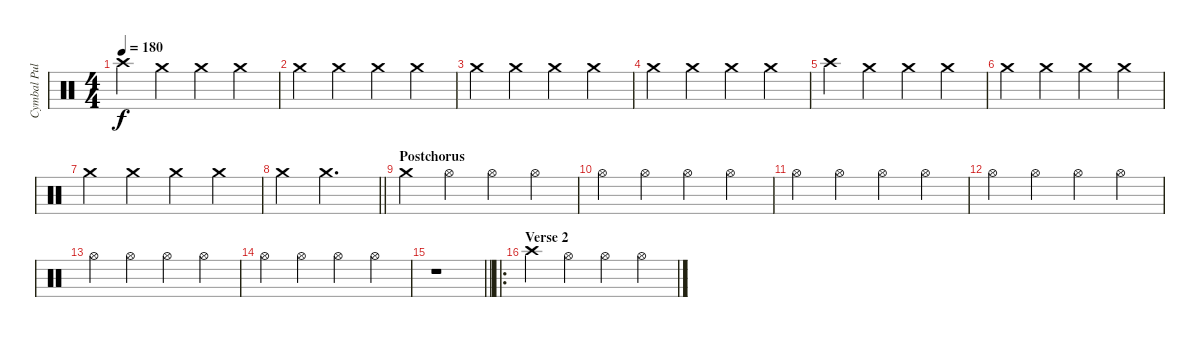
\track ("Cymbal Pulse" "Cymbal Pul") {instrument percussion}
\staff {score}
\articulation defaults
\ts (4 4)
\tempo 180
\clef neutral
\ks c "Crash high (hit)".4{dy f} "Crash medium (hit)".4 "Crash medium (hit)".4 "Crash medium (hit)".4
|
"Crash medium (hit)".4 "Crash medium (hit)".4 "Crash medium (hit)".4 "Crash medium (hit)".4 |
"Crash medium (hit)".4 "Crash medium (hit)".4 "Crash medium (hit)".4 "Crash medium (hit)".4 |
"Crash medium (hit)".4 "Crash medium (hit)".4 "Crash medium (hit)".4 "Crash medium (hit)".4 |
"Crash high (hit)".4 "Crash medium (hit)".4 "Crash medium (hit)".4 "Crash medium (hit)".4 |
"Crash medium (hit)".4 "Crash medium (hit)".4 "Crash medium (hit)".4 "Crash medium (hit)".4 |
"Crash medium (hit)".4 "Crash medium (hit)".4 "Crash medium (hit)".4 "Crash medium (hit)".4 |
\barLineRight lightlight "Crash medium (hit)".4 "Crash medium (hit)".2{d}
|
\section ("" "Postchorus")
"Crash medium (hit)".4 "Hi-Hat (open)".4 "Hi-Hat (open)".4 "Hi-Hat (open)".4 |
"Hi-Hat (open)".4 "Hi-Hat (open)".4 "Hi-Hat (open)".4 "Hi-Hat (open)".4 |
"Hi-Hat (open)".4 "Hi-Hat (open)".4 "Hi-Hat (open)".4 "Hi-Hat (open)".4 |
"Hi-Hat (open)".4 "Hi-Hat (open)".4 "Hi-Hat (open)".4 "Hi-Hat (open)".4 |
"Hi-Hat (open)".4 "Hi-Hat (open)".4 "Hi-Hat (open)".4 "Hi-Hat (open)".4 |
"Hi-Hat (open)".4 "Hi-Hat (open)".4 "Hi-Hat (open)".4 "Hi-Hat (open)".4 |
\barLineRight lightlight
r.1 |
\ro
\section ("" "Verse 2")
"Crash high (hit)".4 "Hi-Hat (open)".4 "Hi-Hat (open)".4 "Hi-Hat (open)".4
